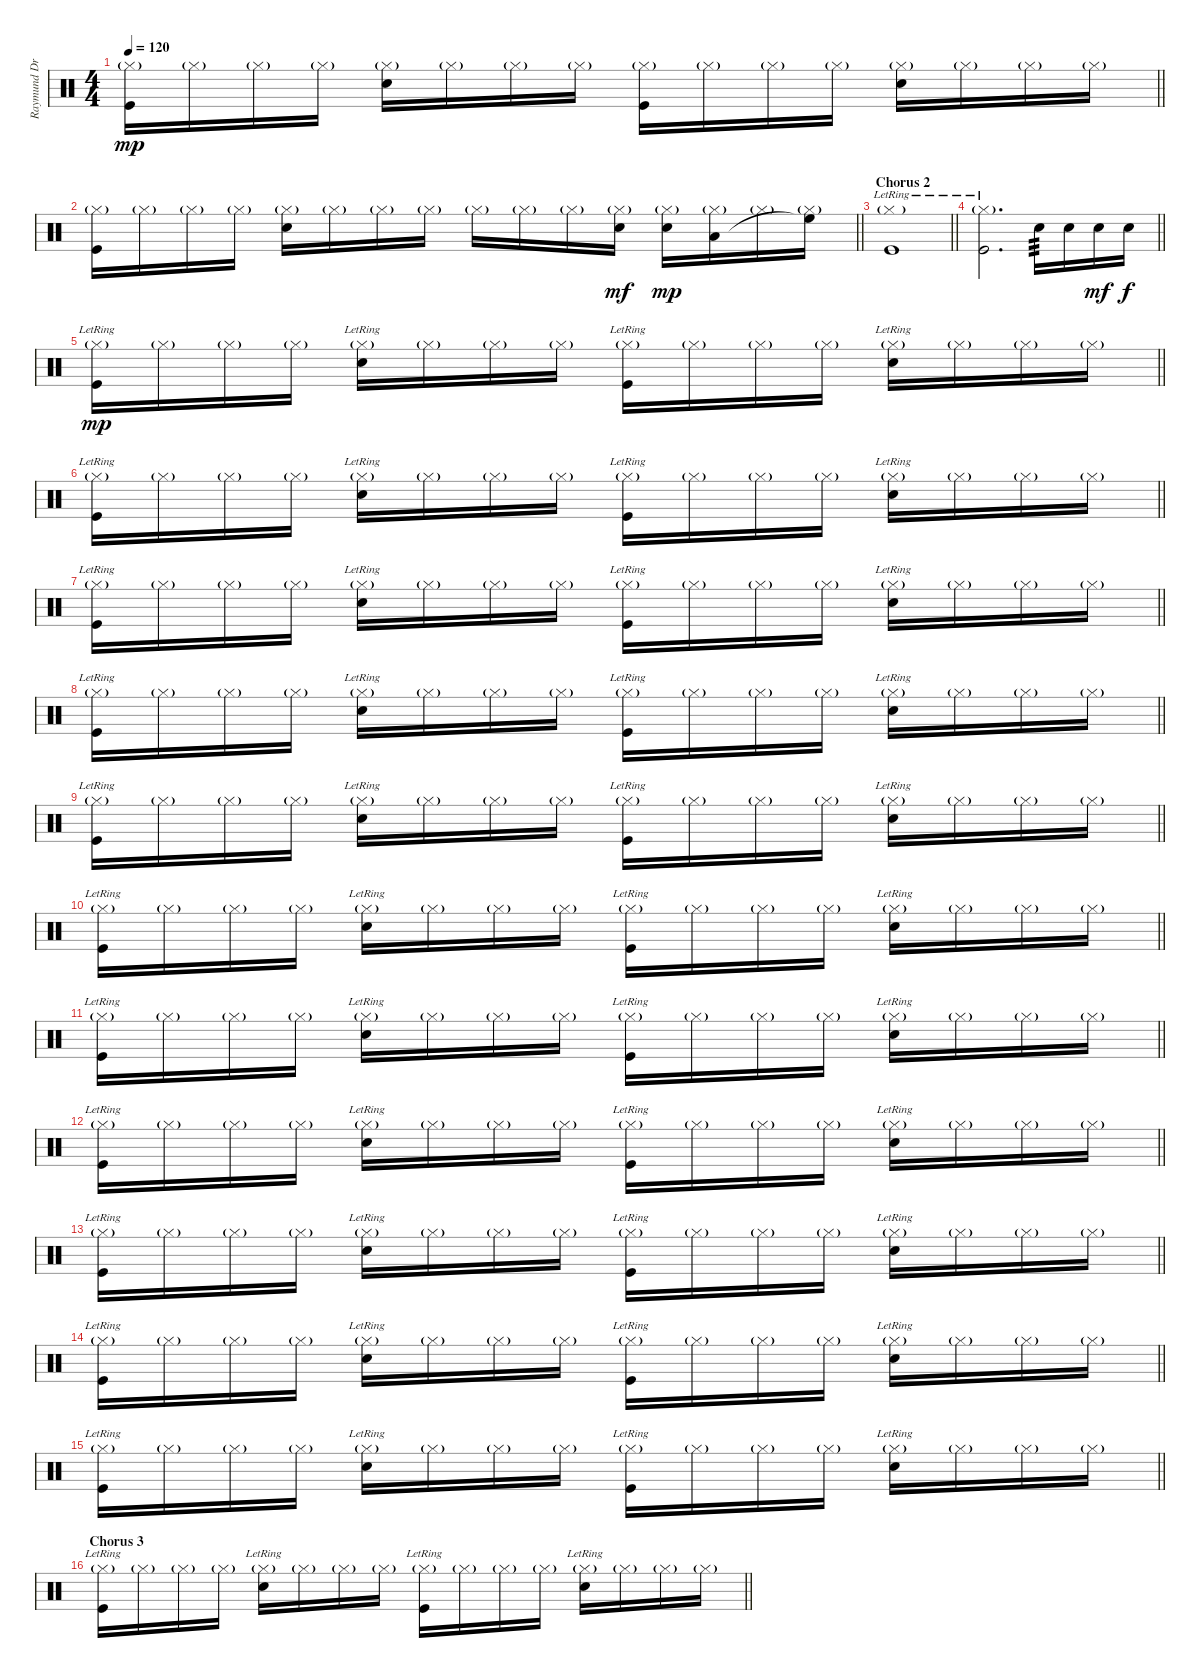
\track ("Raymund Drums" "Raymund Dr") {instrument percussion}
\staff {score}
\articulation defaults
\ts (4 4)
\tempo 120
\clef neutral
\barLineRight lightlight
\ks c
("Hi-Hat (closed)"{g} "Kick (hit)").16{dy mp} "Hi-Hat (closed)"{g}.16 "Hi-Hat (closed)"{g}.16 "Hi-Hat (closed)"{g}.16 ("Hi-Hat (closed)"{g} "Snare (hit) 2").16 "Hi-Hat (closed)"{g}.16 "Hi-Hat (closed)"{g}.16 "Hi-Hat (closed)"{g}.16 ("Hi-Hat (closed)"{g} "Kick (hit)").16 "Hi-Hat (closed)"{g}.16 "Hi-Hat (closed)"{g}.16 "Hi-Hat (closed)"{g}.16 ("Hi-Hat (closed)"{g} "Snare (hit) 2").16 "Hi-Hat (closed)"{g}.16 "Hi-Hat (closed)"{g}.16 "Hi-Hat (closed)"{g}.16 |
\barLineRight lightlight
("Hi-Hat (closed)"{g} "Kick (hit)").16 "Hi-Hat (closed)"{g}.16 "Hi-Hat (closed)"{g}.16 "Hi-Hat (closed)"{g}.16 ("Hi-Hat (closed)"{g} "Snare (hit) 2").16 "Hi-Hat (closed)"{g}.16 "Hi-Hat (closed)"{g}.16 "Hi-Hat (closed)"{g}.16 "Hi-Hat (closed)"{g}.16 "Hi-Hat (closed)"{g}.16 "Hi-Hat (closed)"{g}.16 ("Hi-Hat (closed)"{g} "Snare (hit) 2").16{dy mf} ("Hi-Hat (closed)"{g} "Snare (hit) 2").16{dy mp} ("Hi-Hat (closed)"{g} "Low Tom (hit)").16 "Hi-Hat (closed)"{g}.16 ("Hi-Hat (closed)"{g} "High Floor Tom (hit)"{t}).16 |
\section ("" "Chorus 2")
\barLineRight lightlight
("Hi-Hat (closed)"{g} "Kick (hit)"{lr}).1 |
\barLineRight lightlight
("Hi-Hat (closed)"{g} "Kick (hit)"{lr}).2{d} "Snare (hit) 2".16{tp 3} "Snare (hit) 2".16 "Snare (hit) 2".16{dy mf} "Snare (hit) 2".16{dy f} |
\barLineRight lightlight
("Hi-Hat (closed)"{g} "Kick (hit)"{lr}).16{dy mp} "Hi-Hat (closed)"{g}.16 "Hi-Hat (closed)"{g}.16 "Hi-Hat (closed)"{g}.16 ("Hi-Hat (closed)"{g} "Snare (hit) 2"{lr}).16 "Hi-Hat (closed)"{g}.16 "Hi-Hat (closed)"{g}.16 "Hi-Hat (closed)"{g}.16 ("Hi-Hat (closed)"{g} "Kick (hit)"{lr}).16 "Hi-Hat (closed)"{g}.16 "Hi-Hat (closed)"{g}.16 "Hi-Hat (closed)"{g}.16 ("Hi-Hat (closed)"{g} "Snare (hit) 2"{lr}).16 "Hi-Hat (closed)"{g}.16 "Hi-Hat (closed)"{g}.16 "Hi-Hat (closed)"{g}.16 |
\barLineRight lightlight
("Hi-Hat (closed)"{g} "Kick (hit)"{lr}).16 "Hi-Hat (closed)"{g}.16 "Hi-Hat (closed)"{g}.16 "Hi-Hat (closed)"{g}.16 ("Hi-Hat (closed)"{g} "Snare (hit) 2"{lr}).16 "Hi-Hat (closed)"{g}.16 "Hi-Hat (closed)"{g}.16 "Hi-Hat (closed)"{g}.16 ("Hi-Hat (closed)"{g} "Kick (hit)"{lr}).16 "Hi-Hat (closed)"{g}.16 "Hi-Hat (closed)"{g}.16 "Hi-Hat (closed)"{g}.16 ("Hi-Hat (closed)"{g} "Snare (hit) 2"{lr}).16 "Hi-Hat (closed)"{g}.16 "Hi-Hat (closed)"{g}.16 "Hi-Hat (closed)"{g}.16 |
\barLineRight lightlight
("Hi-Hat (closed)"{g} "Kick (hit)"{lr}).16 "Hi-Hat (closed)"{g}.16 "Hi-Hat (closed)"{g}.16 "Hi-Hat (closed)"{g}.16 ("Hi-Hat (closed)"{g} "Snare (hit) 2"{lr}).16 "Hi-Hat (closed)"{g}.16 "Hi-Hat (closed)"{g}.16 "Hi-Hat (closed)"{g}.16 ("Hi-Hat (closed)"{g} "Kick (hit)"{lr}).16 "Hi-Hat (closed)"{g}.16 "Hi-Hat (closed)"{g}.16 "Hi-Hat (closed)"{g}.16 ("Hi-Hat (closed)"{g} "Snare (hit) 2"{lr}).16 "Hi-Hat (closed)"{g}.16 "Hi-Hat (closed)"{g}.16 "Hi-Hat (closed)"{g}.16 |
\barLineRight lightlight
("Hi-Hat (closed)"{g} "Kick (hit)"{lr}).16 "Hi-Hat (closed)"{g}.16 "Hi-Hat (closed)"{g}.16 "Hi-Hat (closed)"{g}.16 ("Hi-Hat (closed)"{g} "Snare (hit) 2"{lr}).16 "Hi-Hat (closed)"{g}.16 "Hi-Hat (closed)"{g}.16 "Hi-Hat (closed)"{g}.16 ("Hi-Hat (closed)"{g} "Kick (hit)"{lr}).16 "Hi-Hat (closed)"{g}.16 "Hi-Hat (closed)"{g}.16 "Hi-Hat (closed)"{g}.16 ("Hi-Hat (closed)"{g} "Snare (hit) 2"{lr}).16 "Hi-Hat (closed)"{g}.16 "Hi-Hat (closed)"{g}.16 "Hi-Hat (closed)"{g}.16 |
\barLineRight lightlight
("Hi-Hat (closed)"{g} "Kick (hit)"{lr}).16 "Hi-Hat (closed)"{g}.16 "Hi-Hat (closed)"{g}.16 "Hi-Hat (closed)"{g}.16 ("Hi-Hat (closed)"{g} "Snare (hit) 2"{lr}).16 "Hi-Hat (closed)"{g}.16 "Hi-Hat (closed)"{g}.16 "Hi-Hat (closed)"{g}.16 ("Hi-Hat (closed)"{g} "Kick (hit)"{lr}).16 "Hi-Hat (closed)"{g}.16 "Hi-Hat (closed)"{g}.16 "Hi-Hat (closed)"{g}.16 ("Hi-Hat (closed)"{g} "Snare (hit) 2"{lr}).16 "Hi-Hat (closed)"{g}.16 "Hi-Hat (closed)"{g}.16 "Hi-Hat (closed)"{g}.16 |
\barLineRight lightlight
("Hi-Hat (closed)"{g} "Kick (hit)"{lr}).16 "Hi-Hat (closed)"{g}.16 "Hi-Hat (closed)"{g}.16 "Hi-Hat (closed)"{g}.16 ("Hi-Hat (closed)"{g} "Snare (hit) 2"{lr}).16 "Hi-Hat (closed)"{g}.16 "Hi-Hat (closed)"{g}.16 "Hi-Hat (closed)"{g}.16 ("Hi-Hat (closed)"{g} "Kick (hit)"{lr}).16 "Hi-Hat (closed)"{g}.16 "Hi-Hat (closed)"{g}.16 "Hi-Hat (closed)"{g}.16 ("Hi-Hat (closed)"{g} "Snare (hit) 2"{lr}).16 "Hi-Hat (closed)"{g}.16 "Hi-Hat (closed)"{g}.16 "Hi-Hat (closed)"{g}.16 |
\barLineRight lightlight
("Hi-Hat (closed)"{g} "Kick (hit)"{lr}).16 "Hi-Hat (closed)"{g}.16 "Hi-Hat (closed)"{g}.16 "Hi-Hat (closed)"{g}.16 ("Hi-Hat (closed)"{g} "Snare (hit) 2"{lr}).16 "Hi-Hat (closed)"{g}.16 "Hi-Hat (closed)"{g}.16 "Hi-Hat (closed)"{g}.16 ("Hi-Hat (closed)"{g} "Kick (hit)"{lr}).16 "Hi-Hat (closed)"{g}.16 "Hi-Hat (closed)"{g}.16 "Hi-Hat (closed)"{g}.16 ("Hi-Hat (closed)"{g} "Snare (hit) 2"{lr}).16 "Hi-Hat (closed)"{g}.16 "Hi-Hat (closed)"{g}.16 "Hi-Hat (closed)"{g}.16 |
\barLineRight lightlight
("Hi-Hat (closed)"{g} "Kick (hit)"{lr}).16 "Hi-Hat (closed)"{g}.16 "Hi-Hat (closed)"{g}.16 "Hi-Hat (closed)"{g}.16 ("Hi-Hat (closed)"{g} "Snare (hit) 2"{lr}).16 "Hi-Hat (closed)"{g}.16 "Hi-Hat (closed)"{g}.16 "Hi-Hat (closed)"{g}.16 ("Hi-Hat (closed)"{g} "Kick (hit)"{lr}).16 "Hi-Hat (closed)"{g}.16 "Hi-Hat (closed)"{g}.16 "Hi-Hat (closed)"{g}.16 ("Hi-Hat (closed)"{g} "Snare (hit) 2"{lr}).16 "Hi-Hat (closed)"{g}.16 "Hi-Hat (closed)"{g}.16 "Hi-Hat (closed)"{g}.16 |
\barLineRight lightlight
("Hi-Hat (closed)"{g} "Kick (hit)"{lr}).16 "Hi-Hat (closed)"{g}.16 "Hi-Hat (closed)"{g}.16 "Hi-Hat (closed)"{g}.16 ("Hi-Hat (closed)"{g} "Snare (hit) 2"{lr}).16 "Hi-Hat (closed)"{g}.16 "Hi-Hat (closed)"{g}.16 "Hi-Hat (closed)"{g}.16 ("Hi-Hat (closed)"{g} "Kick (hit)"{lr}).16 "Hi-Hat (closed)"{g}.16 "Hi-Hat (closed)"{g}.16 "Hi-Hat (closed)"{g}.16 ("Hi-Hat (closed)"{g} "Snare (hit) 2"{lr}).16 "Hi-Hat (closed)"{g}.16 "Hi-Hat (closed)"{g}.16 "Hi-Hat (closed)"{g}.16 |
\barLineRight lightlight
("Hi-Hat (closed)"{g} "Kick (hit)"{lr}).16 "Hi-Hat (closed)"{g}.16 "Hi-Hat (closed)"{g}.16 "Hi-Hat (closed)"{g}.16 ("Hi-Hat (closed)"{g} "Snare (hit) 2"{lr}).16 "Hi-Hat (closed)"{g}.16 "Hi-Hat (closed)"{g}.16 "Hi-Hat (closed)"{g}.16 ("Hi-Hat (closed)"{g} "Kick (hit)"{lr}).16 "Hi-Hat (closed)"{g}.16 "Hi-Hat (closed)"{g}.16 "Hi-Hat (closed)"{g}.16 ("Hi-Hat (closed)"{g} "Snare (hit) 2"{lr}).16 "Hi-Hat (closed)"{g}.16 "Hi-Hat (closed)"{g}.16 "Hi-Hat (closed)"{g}.16 |
\barLineRight lightlight
("Hi-Hat (closed)"{g} "Kick (hit)"{lr}).16 "Hi-Hat (closed)"{g}.16 "Hi-Hat (closed)"{g}.16 "Hi-Hat (closed)"{g}.16 ("Hi-Hat (closed)"{g} "Snare (hit) 2"{lr}).16 "Hi-Hat (closed)"{g}.16 "Hi-Hat (closed)"{g}.16 "Hi-Hat (closed)"{g}.16 ("Hi-Hat (closed)"{g} "Kick (hit)"{lr}).16 "Hi-Hat (closed)"{g}.16 "Hi-Hat (closed)"{g}.16 "Hi-Hat (closed)"{g}.16 ("Hi-Hat (closed)"{g} "Snare (hit) 2"{lr}).16 "Hi-Hat (closed)"{g}.16 "Hi-Hat (closed)"{g}.16 "Hi-Hat (closed)"{g}.16 |
\section ("" "Chorus 3")
\barLineRight lightlight
("Hi-Hat (closed)"{g} "Kick (hit)"{lr}).16 "Hi-Hat (closed)"{g}.16 "Hi-Hat (closed)"{g}.16 "Hi-Hat (closed)"{g}.16 ("Hi-Hat (closed)"{g} "Snare (hit) 2"{lr}).16 "Hi-Hat (closed)"{g}.16 "Hi-Hat (closed)"{g}.16 "Hi-Hat (closed)"{g}.16 ("Hi-Hat (closed)"{g} "Kick (hit)"{lr}).16 "Hi-Hat (closed)"{g}.16 "Hi-Hat (closed)"{g}.16 "Hi-Hat (closed)"{g}.16 ("Hi-Hat (closed)"{g} "Snare (hit) 2"{lr}).16 "Hi-Hat (closed)"{g}.16 "Hi-Hat (closed)"{g}.16 "Hi-Hat (closed)"{g}.16
